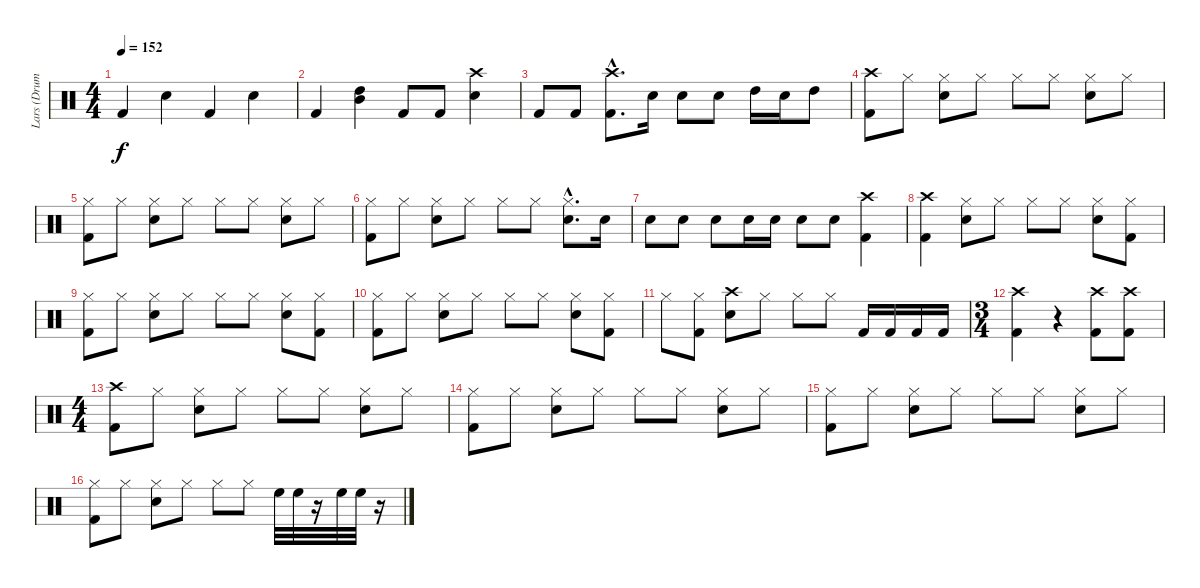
\track ("Lars (Drums)" "Lars (Drum") {instrument percussion}
\staff {score}
\articulation defaults
\ts (4 4)
\tempo 152
\clef neutral
\ks c "Kick (hit) 2".4{dy f} "Snare (hit) 2".4 "Kick (hit) 2".4 "Snare (hit) 2".4
|
"Kick (hit) 2".4 ("High Tom (hit)" "Mid Tom (hit)").4 "Kick (hit) 2".8 "Kick (hit) 2".8 ("Crash high (hit)" "Snare (hit) 2").4 |
"Kick (hit) 2".8 "Kick (hit) 2".8 ("Crash high (hit)"{hac} "Kick (hit) 2"{hac}).8{d} "Snare (hit) 2".16 "Snare (hit) 2".8 "Snare (hit) 2".8 "High Tom (hit)".16 "Snare (hit) 2".16 "High Tom (hit)".8 |
("Crash high (hit)" "Kick (hit) 2").8 "Hi-Hat (closed)".8 ("Hi-Hat (closed)" "Snare (hit) 2").8 "Hi-Hat (closed)".8 "Hi-Hat (closed)".8 "Hi-Hat (closed)".8 ("Hi-Hat (closed)" "Snare (hit) 2").8 "Hi-Hat (closed)".8 |
("Hi-Hat (closed)" "Kick (hit) 2").8 "Hi-Hat (closed)".8 ("Hi-Hat (closed)" "Snare (hit) 2").8 "Hi-Hat (closed)".8 "Hi-Hat (closed)".8 "Hi-Hat (closed)".8 ("Hi-Hat (closed)" "Snare (hit) 2").8 "Hi-Hat (closed)".8 |
("Hi-Hat (closed)" "Kick (hit) 2").8 "Hi-Hat (closed)".8 ("Hi-Hat (closed)" "Snare (hit) 2").8 "Hi-Hat (closed)".8 "Hi-Hat (closed)".8 "Hi-Hat (closed)".8 ("Hi-Hat (closed)"{hac} "Snare (hit) 2"{hac}).8{d} "Snare (hit) 2".16 |
"Snare (hit) 2".8 "Snare (hit) 2".8 "Snare (hit) 2".8 "Snare (hit) 2".16 "Snare (hit) 2".16 "Snare (hit) 2".8 "Snare (hit) 2".8 ("Crash high (hit)" "Kick (hit) 2").4 |
("Crash high (hit)" "Kick (hit) 2").4 ("Hi-Hat (closed)" "Snare (hit) 2").8 "Hi-Hat (closed)".8 "Hi-Hat (closed)".8 "Hi-Hat (closed)".8 ("Hi-Hat (closed)" "Snare (hit) 2").8 ("Hi-Hat (closed)" "Kick (hit) 2").8 |
("Hi-Hat (closed)" "Kick (hit) 2").8 "Hi-Hat (closed)".8 ("Hi-Hat (closed)" "Snare (hit) 2").8 "Hi-Hat (closed)".8 "Hi-Hat (closed)".8 "Hi-Hat (closed)".8 ("Hi-Hat (closed)" "Snare (hit) 2").8 ("Hi-Hat (closed)" "Kick (hit) 2").8 |
("Hi-Hat (closed)" "Kick (hit) 2").8 "Hi-Hat (closed)".8 ("Hi-Hat (closed)" "Snare (hit) 2").8 "Hi-Hat (closed)".8 "Hi-Hat (closed)".8 "Hi-Hat (closed)".8 ("Hi-Hat (closed)" "Snare (hit) 2").8 ("Hi-Hat (closed)" "Kick (hit) 2").8 |
"Hi-Hat (closed)".8 ("Hi-Hat (closed)" "Kick (hit) 2").8 ("Crash high (hit)" "Snare (hit) 2").8 "Hi-Hat (closed)".8 "Hi-Hat (closed)".8 "Hi-Hat (closed)".8 "Kick (hit) 2".16 "Kick (hit) 2".16 "Kick (hit) 2".16 "Kick (hit) 2".16 |
\ts (3 4)
("Crash high (hit)" "Kick (hit) 2").4 r.4 ("Crash high (hit)" "Kick (hit) 2").8 ("Crash high (hit)" "Kick (hit) 2").8 |
\ts (4 4)
("Crash high (hit)" "Kick (hit) 2").8 "Hi-Hat (closed)".8 ("Hi-Hat (closed)" "Snare (hit) 2").8 "Hi-Hat (closed)".8 "Hi-Hat (closed)".8 "Hi-Hat (closed)".8 ("Hi-Hat (closed)" "Snare (hit) 2").8 "Hi-Hat (closed)".8 |
("Hi-Hat (closed)" "Kick (hit) 2").8 "Hi-Hat (closed)".8 ("Hi-Hat (closed)" "Snare (hit) 2").8 "Hi-Hat (closed)".8 "Hi-Hat (closed)".8 "Hi-Hat (closed)".8 ("Hi-Hat (closed)" "Snare (hit) 2").8 "Hi-Hat (closed)".8 |
("Hi-Hat (closed)" "Kick (hit) 2").8 "Hi-Hat (closed)".8 ("Hi-Hat (closed)" "Snare (hit) 2").8 "Hi-Hat (closed)".8 "Hi-Hat (closed)".8 "Hi-Hat (closed)".8 ("Hi-Hat (closed)" "Snare (hit) 2").8 "Hi-Hat (closed)".8 |
("Hi-Hat (closed)" "Kick (hit) 2").8 "Hi-Hat (closed)".8 ("Hi-Hat (closed)" "Snare (hit) 2").8 "Hi-Hat (closed)".8 "Hi-Hat (closed)".8 "Hi-Hat (closed)".8 "High Floor Tom (hit)".32 "High Floor Tom (hit)".32 r.16 "High Floor Tom (hit)".32 "High Floor Tom (hit)".32 r.16
